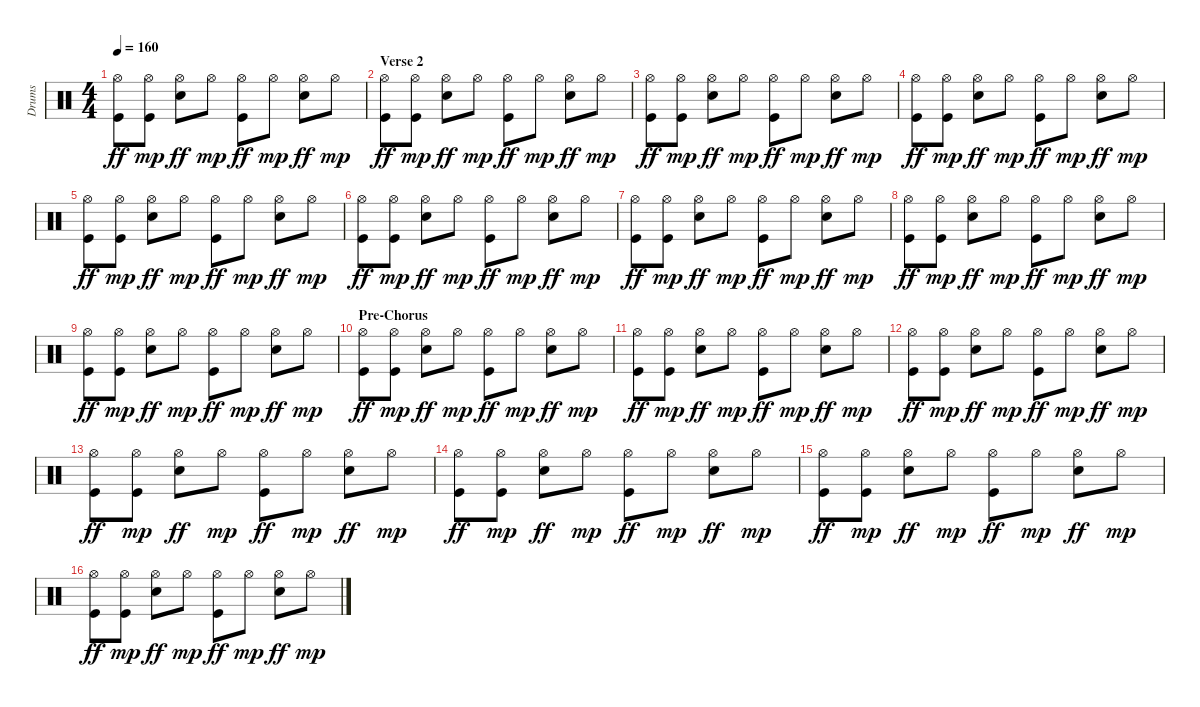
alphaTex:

\track ("Drums" "Drums") {instrument percussion}
\staff {score}
\articulation defaults
\ts (4 4)
\tempo 160
\clef neutral
\ks c
("Kick (hit)" "Hi-Hat (open)").8{dy ff} ("Kick (hit)" "Hi-Hat (open)").8{dy mp} ("Electric Snare (hit)" "Hi-Hat (open)").8{dy ff} "Hi-Hat (open)".8{dy mp} ("Kick (hit)" "Hi-Hat (open)").8{dy ff} "Hi-Hat (open)".8{dy mp} ("Electric Snare (hit)" "Hi-Hat (open)").8{dy ff} "Hi-Hat (open)".8{dy mp} |
\section ("" "Verse 2")
("Kick (hit)" "Hi-Hat (open)").8{dy ff} ("Kick (hit)" "Hi-Hat (open)").8{dy mp} ("Electric Snare (hit)" "Hi-Hat (open)").8{dy ff} "Hi-Hat (open)".8{dy mp} ("Kick (hit)" "Hi-Hat (open)").8{dy ff} "Hi-Hat (open)".8{dy mp} ("Electric Snare (hit)" "Hi-Hat (open)").8{dy ff} "Hi-Hat (open)".8{dy mp} |
("Kick (hit)" "Hi-Hat (open)").8{dy ff} ("Kick (hit)" "Hi-Hat (open)").8{dy mp} ("Electric Snare (hit)" "Hi-Hat (open)").8{dy ff} "Hi-Hat (open)".8{dy mp} ("Kick (hit)" "Hi-Hat (open)").8{dy ff} "Hi-Hat (open)".8{dy mp} ("Electric Snare (hit)" "Hi-Hat (open)").8{dy ff} "Hi-Hat (open)".8{dy mp} |
("Kick (hit)" "Hi-Hat (open)").8{dy ff} ("Kick (hit)" "Hi-Hat (open)").8{dy mp} ("Electric Snare (hit)" "Hi-Hat (open)").8{dy ff} "Hi-Hat (open)".8{dy mp} ("Kick (hit)" "Hi-Hat (open)").8{dy ff} "Hi-Hat (open)".8{dy mp} ("Electric Snare (hit)" "Hi-Hat (open)").8{dy ff} "Hi-Hat (open)".8{dy mp} |
("Kick (hit)" "Hi-Hat (open)").8{dy ff} ("Kick (hit)" "Hi-Hat (open)").8{dy mp} ("Electric Snare (hit)" "Hi-Hat (open)").8{dy ff} "Hi-Hat (open)".8{dy mp} ("Kick (hit)" "Hi-Hat (open)").8{dy ff} "Hi-Hat (open)".8{dy mp} ("Electric Snare (hit)" "Hi-Hat (open)").8{dy ff} "Hi-Hat (open)".8{dy mp} |
("Kick (hit)" "Hi-Hat (open)").8{dy ff} ("Kick (hit)" "Hi-Hat (open)").8{dy mp} ("Electric Snare (hit)" "Hi-Hat (open)").8{dy ff} "Hi-Hat (open)".8{dy mp} ("Kick (hit)" "Hi-Hat (open)").8{dy ff} "Hi-Hat (open)".8{dy mp} ("Electric Snare (hit)" "Hi-Hat (open)").8{dy ff} "Hi-Hat (open)".8{dy mp} |
("Kick (hit)" "Hi-Hat (open)").8{dy ff} ("Kick (hit)" "Hi-Hat (open)").8{dy mp} ("Electric Snare (hit)" "Hi-Hat (open)").8{dy ff} "Hi-Hat (open)".8{dy mp} ("Kick (hit)" "Hi-Hat (open)").8{dy ff} "Hi-Hat (open)".8{dy mp} ("Electric Snare (hit)" "Hi-Hat (open)").8{dy ff} "Hi-Hat (open)".8{dy mp} |
("Kick (hit)" "Hi-Hat (open)").8{dy ff} ("Kick (hit)" "Hi-Hat (open)").8{dy mp} ("Electric Snare (hit)" "Hi-Hat (open)").8{dy ff} "Hi-Hat (open)".8{dy mp} ("Kick (hit)" "Hi-Hat (open)").8{dy ff} "Hi-Hat (open)".8{dy mp} ("Electric Snare (hit)" "Hi-Hat (open)").8{dy ff} "Hi-Hat (open)".8{dy mp} |
("Kick (hit)" "Hi-Hat (open)").8{dy ff} ("Kick (hit)" "Hi-Hat (open)").8{dy mp} ("Electric Snare (hit)" "Hi-Hat (open)").8{dy ff} "Hi-Hat (open)".8{dy mp} ("Kick (hit)" "Hi-Hat (open)").8{dy ff} "Hi-Hat (open)".8{dy mp} ("Electric Snare (hit)" "Hi-Hat (open)").8{dy ff} "Hi-Hat (open)".8{dy mp} |
\section ("" "Pre-Chorus")
("Kick (hit)" "Hi-Hat (open)").8{dy ff} ("Kick (hit)" "Hi-Hat (open)").8{dy mp} ("Electric Snare (hit)" "Hi-Hat (open)").8{dy ff} "Hi-Hat (open)".8{dy mp} ("Kick (hit)" "Hi-Hat (open)").8{dy ff} "Hi-Hat (open)".8{dy mp} ("Electric Snare (hit)" "Hi-Hat (open)").8{dy ff} "Hi-Hat (open)".8{dy mp} |
("Kick (hit)" "Hi-Hat (open)").8{dy ff} ("Kick (hit)" "Hi-Hat (open)").8{dy mp} ("Electric Snare (hit)" "Hi-Hat (open)").8{dy ff} "Hi-Hat (open)".8{dy mp} ("Kick (hit)" "Hi-Hat (open)").8{dy ff} "Hi-Hat (open)".8{dy mp} ("Electric Snare (hit)" "Hi-Hat (open)").8{dy ff} "Hi-Hat (open)".8{dy mp} |
("Kick (hit)" "Hi-Hat (open)").8{dy ff} ("Kick (hit)" "Hi-Hat (open)").8{dy mp} ("Electric Snare (hit)" "Hi-Hat (open)").8{dy ff} "Hi-Hat (open)".8{dy mp} ("Kick (hit)" "Hi-Hat (open)").8{dy ff} "Hi-Hat (open)".8{dy mp} ("Electric Snare (hit)" "Hi-Hat (open)").8{dy ff} "Hi-Hat (open)".8{dy mp} |
("Kick (hit)" "Hi-Hat (open)").8{dy ff} ("Kick (hit)" "Hi-Hat (open)").8{dy mp} ("Electric Snare (hit)" "Hi-Hat (open)").8{dy ff} "Hi-Hat (open)".8{dy mp} ("Kick (hit)" "Hi-Hat (open)").8{dy ff} "Hi-Hat (open)".8{dy mp} ("Electric Snare (hit)" "Hi-Hat (open)").8{dy ff} "Hi-Hat (open)".8{dy mp} |
("Kick (hit)" "Hi-Hat (open)").8{dy ff} ("Kick (hit)" "Hi-Hat (open)").8{dy mp} ("Electric Snare (hit)" "Hi-Hat (open)").8{dy ff} "Hi-Hat (open)".8{dy mp} ("Kick (hit)" "Hi-Hat (open)").8{dy ff} "Hi-Hat (open)".8{dy mp} ("Electric Snare (hit)" "Hi-Hat (open)").8{dy ff} "Hi-Hat (open)".8{dy mp} |
("Kick (hit)" "Hi-Hat (open)").8{dy ff} ("Kick (hit)" "Hi-Hat (open)").8{dy mp} ("Electric Snare (hit)" "Hi-Hat (open)").8{dy ff} "Hi-Hat (open)".8{dy mp} ("Kick (hit)" "Hi-Hat (open)").8{dy ff} "Hi-Hat (open)".8{dy mp} ("Electric Snare (hit)" "Hi-Hat (open)").8{dy ff} "Hi-Hat (open)".8{dy mp} |
("Kick (hit)" "Hi-Hat (open)").8{dy ff} ("Kick (hit)" "Hi-Hat (open)").8{dy mp} ("Electric Snare (hit)" "Hi-Hat (open)").8{dy ff} "Hi-Hat (open)".8{dy mp} ("Kick (hit)" "Hi-Hat (open)").8{dy ff} "Hi-Hat (open)".8{dy mp} ("Electric Snare (hit)" "Hi-Hat (open)").8{dy ff} "Hi-Hat (open)".8{dy mp}
